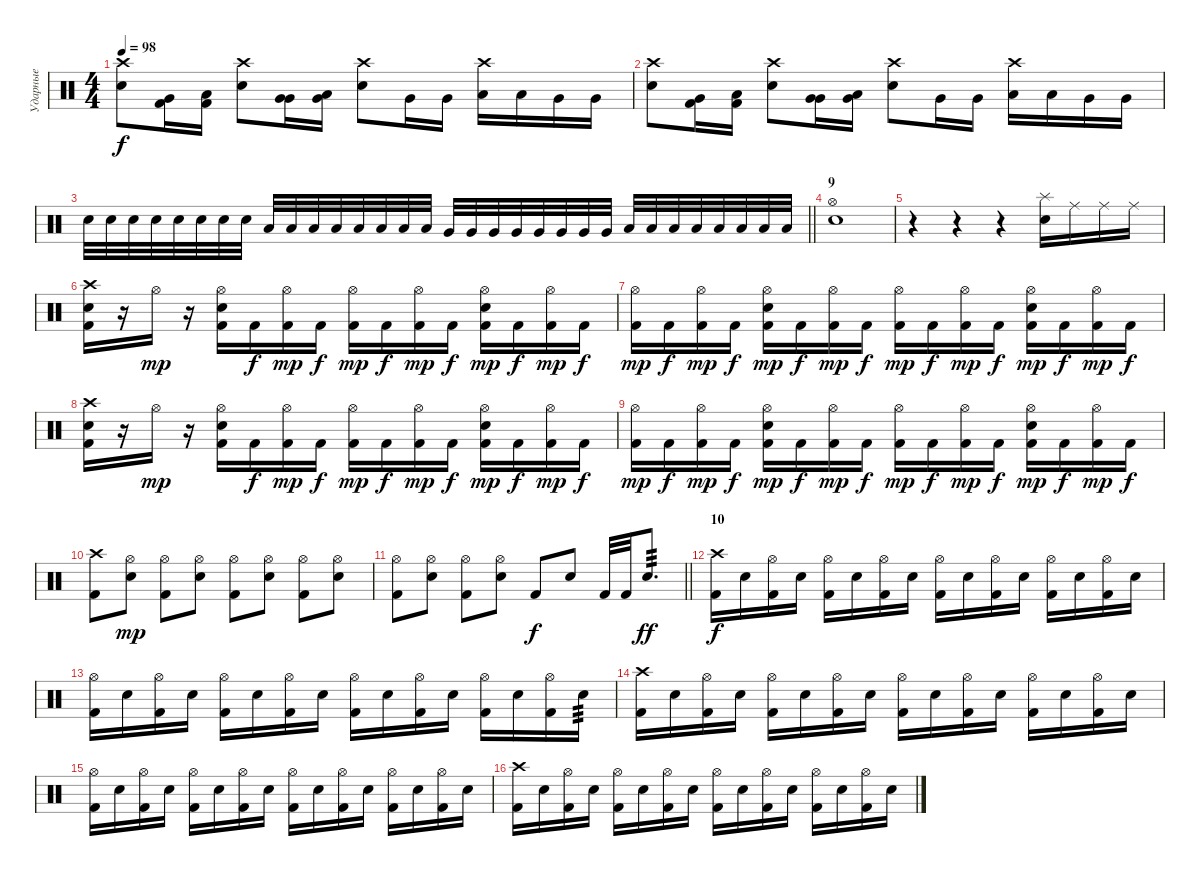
\track ("Ударные" "Ударные") {instrument percussion}
\staff {score}
\articulation defaults
\ts (4 4)
\tempo 98
\clef neutral
\ks c
("Electric Snare (hit)" "Crash high (hit)").8{dy f} ("Kick (hit) 2" "Very Low Tom (hit)").16 ("Kick (hit) 2" "Low Floor Tom (hit)").16 ("Electric Snare (hit)" "Crash high (hit)").8 ("Very Low Tom (hit)" "Very Low Tom (hit)").16 ("Very Low Tom (hit)" "Low Floor Tom (hit)").16 ("Electric Snare (hit)" "Crash high (hit)").8 "Very Low Tom (hit)".16 "Very Low Tom (hit)".16 ("Low Tom (hit)" "Crash high (hit)").16 "Low Tom (hit)".16 "Very Low Tom (hit)".16 "Very Low Tom (hit)".16 |
("Electric Snare (hit)" "Crash high (hit)").8 ("Kick (hit) 2" "Very Low Tom (hit)").16 ("Kick (hit) 2" "Low Floor Tom (hit)").16 ("Electric Snare (hit)" "Crash high (hit)").8 ("Very Low Tom (hit)" "Very Low Tom (hit)").16 ("Very Low Tom (hit)" "Low Floor Tom (hit)").16 ("Electric Snare (hit)" "Crash high (hit)").8 "Very Low Tom (hit)".16 "Very Low Tom (hit)".16 ("Low Tom (hit)" "Crash high (hit)").16 "Low Tom (hit)".16 "Very Low Tom (hit)".16 "Very Low Tom (hit)".16 |
\barLineRight lightlight "Electric Snare (hit)".32 "Electric Snare (hit)".32 "Electric Snare (hit)".32 "Electric Snare (hit)".32 "Electric Snare (hit)".32 "Electric Snare (hit)".32 "Electric Snare (hit)".32 "Electric Snare (hit)".32 "Low Tom (hit)".32 "Low Tom (hit)".32 "Low Tom (hit)".32 "Low Tom (hit)".32 "Low Tom (hit)".32 "Low Tom (hit)".32 "Low Tom (hit)".32 "Low Tom (hit)".32 "Very Low Tom (hit)".32 "Very Low Tom (hit)".32 "Very Low Tom (hit)".32 "Very Low Tom (hit)".32 "Very Low Tom (hit)".32 "Very Low Tom (hit)".32 "Very Low Tom (hit)".32 "Very Low Tom (hit)".32 "Low Floor Tom (hit)".32 "Low Floor Tom (hit)".32 "Low Floor Tom (hit)".32 "Low Floor Tom (hit)".32 "Low Floor Tom (hit)".32 "Low Floor Tom (hit)".32 "Low Floor Tom (hit)".32 "Low Floor Tom (hit)".32
|
\section ("" "9")
("Electric Snare (hit)" "Hi-Hat (open)").1 |
r.4 r.4 r.4 ("Electric Snare (hit)" "Splash (hit)").16 "Ride (middle)".16 "Ride (middle)".16 "Ride (middle)".16 |
("Kick (hit) 2" "Electric Snare (hit)" "Crash high (hit)").16 r.16 "Hi-Hat (open)".16{dy mp} r.16 ("Kick (hit) 2" "Electric Snare (hit)" "Hi-Hat (open)").16 "Kick (hit) 2".16{dy f} ("Kick (hit) 2" "Hi-Hat (open)").16{dy mp} "Kick (hit) 2".16{dy f} ("Kick (hit) 2" "Hi-Hat (open)").16{dy mp} "Kick (hit) 2".16{dy f} ("Kick (hit) 2" "Hi-Hat (open)").16{dy mp} "Kick (hit) 2".16{dy f} ("Kick (hit) 2" "Electric Snare (hit)" "Hi-Hat (open)").16{dy mp} "Kick (hit) 2".16{dy f} ("Kick (hit) 2" "Hi-Hat (open)").16{dy mp} "Kick (hit) 2".16{dy f} |
("Kick (hit) 2" "Hi-Hat (open)").16{dy mp} "Kick (hit) 2".16{dy f} ("Kick (hit) 2" "Hi-Hat (open)").16{dy mp} "Kick (hit) 2".16{dy f} ("Kick (hit) 2" "Electric Snare (hit)" "Hi-Hat (open)").16{dy mp} "Kick (hit) 2".16{dy f} ("Kick (hit) 2" "Hi-Hat (open)").16{dy mp} "Kick (hit) 2".16{dy f} ("Kick (hit) 2" "Hi-Hat (open)").16{dy mp} "Kick (hit) 2".16{dy f} ("Kick (hit) 2" "Hi-Hat (open)").16{dy mp} "Kick (hit) 2".16{dy f} ("Kick (hit) 2" "Electric Snare (hit)" "Hi-Hat (open)").16{dy mp} "Kick (hit) 2".16{dy f} ("Kick (hit) 2" "Hi-Hat (open)").16{dy mp} "Kick (hit) 2".16{dy f} |
("Kick (hit) 2" "Electric Snare (hit)" "Crash high (hit)").16 r.16 "Hi-Hat (open)".16{dy mp} r.16 ("Kick (hit) 2" "Electric Snare (hit)" "Hi-Hat (open)").16 "Kick (hit) 2".16{dy f} ("Kick (hit) 2" "Hi-Hat (open)").16{dy mp} "Kick (hit) 2".16{dy f} ("Kick (hit) 2" "Hi-Hat (open)").16{dy mp} "Kick (hit) 2".16{dy f} ("Kick (hit) 2" "Hi-Hat (open)").16{dy mp} "Kick (hit) 2".16{dy f} ("Kick (hit) 2" "Electric Snare (hit)" "Hi-Hat (open)").16{dy mp} "Kick (hit) 2".16{dy f} ("Kick (hit) 2" "Hi-Hat (open)").16{dy mp} "Kick (hit) 2".16{dy f} |
("Kick (hit) 2" "Hi-Hat (open)").16{dy mp} "Kick (hit) 2".16{dy f} ("Kick (hit) 2" "Hi-Hat (open)").16{dy mp} "Kick (hit) 2".16{dy f} ("Kick (hit) 2" "Electric Snare (hit)" "Hi-Hat (open)").16{dy mp} "Kick (hit) 2".16{dy f} ("Kick (hit) 2" "Hi-Hat (open)").16{dy mp} "Kick (hit) 2".16{dy f} ("Kick (hit) 2" "Hi-Hat (open)").16{dy mp} "Kick (hit) 2".16{dy f} ("Kick (hit) 2" "Hi-Hat (open)").16{dy mp} "Kick (hit) 2".16{dy f} ("Kick (hit) 2" "Electric Snare (hit)" "Hi-Hat (open)").16{dy mp} "Kick (hit) 2".16{dy f} ("Kick (hit) 2" "Hi-Hat (open)").16{dy mp} "Kick (hit) 2".16{dy f} |
("Kick (hit) 2" "Crash high (hit)").8 ("Electric Snare (hit)" "Hi-Hat (open)").8{dy mp} ("Kick (hit) 2" "Hi-Hat (open)").8 ("Electric Snare (hit)" "Hi-Hat (open)").8 ("Kick (hit) 2" "Hi-Hat (open)").8 ("Electric Snare (hit)" "Hi-Hat (open)").8 ("Kick (hit) 2" "Hi-Hat (open)").8 ("Electric Snare (hit)" "Hi-Hat (open)").8 |
\barLineRight lightlight
("Kick (hit) 2" "Hi-Hat (open)").8 ("Electric Snare (hit)" "Hi-Hat (open)").8 ("Kick (hit) 2" "Hi-Hat (open)").8 ("Electric Snare (hit)" "Hi-Hat (open)").8 "Kick (hit) 2".8{dy f} "Electric Snare (hit)".8 "Kick (hit) 2".32 "Kick (hit) 2".32 "Electric Snare (hit)".8{d tp 3 dy ff} |
\section ("" "10")
("Kick (hit) 2" "Crash high (hit)").16{dy f} "Electric Snare (hit)".16 ("Kick (hit) 2" "Hi-Hat (open)").16 "Electric Snare (hit)".16 ("Kick (hit) 2" "Hi-Hat (open)").16 "Electric Snare (hit)".16 ("Kick (hit) 2" "Hi-Hat (open)").16 "Electric Snare (hit)".16 ("Kick (hit) 2" "Hi-Hat (open)").16 "Electric Snare (hit)".16 ("Kick (hit) 2" "Hi-Hat (open)").16 "Electric Snare (hit)".16 ("Kick (hit) 2" "Hi-Hat (open)").16 "Electric Snare (hit)".16 ("Kick (hit) 2" "Hi-Hat (open)").16 "Electric Snare (hit)".16 |
("Kick (hit) 2" "Hi-Hat (open)").16 "Electric Snare (hit)".16 ("Kick (hit) 2" "Hi-Hat (open)").16 "Electric Snare (hit)".16 ("Kick (hit) 2" "Hi-Hat (open)").16 "Electric Snare (hit)".16 ("Kick (hit) 2" "Hi-Hat (open)").16 "Electric Snare (hit)".16 ("Kick (hit) 2" "Hi-Hat (open)").16 "Electric Snare (hit)".16 ("Kick (hit) 2" "Hi-Hat (open)").16 "Electric Snare (hit)".16 ("Kick (hit) 2" "Hi-Hat (open)").16 "Electric Snare (hit)".16 ("Kick (hit) 2" "Hi-Hat (open)").16 "Electric Snare (hit)".16{tp 3} |
("Kick (hit) 2" "Crash high (hit)").16 "Electric Snare (hit)".16 ("Kick (hit) 2" "Hi-Hat (open)").16 "Electric Snare (hit)".16 ("Kick (hit) 2" "Hi-Hat (open)").16 "Electric Snare (hit)".16 ("Kick (hit) 2" "Hi-Hat (open)").16 "Electric Snare (hit)".16 ("Kick (hit) 2" "Hi-Hat (open)").16 "Electric Snare (hit)".16 ("Kick (hit) 2" "Hi-Hat (open)").16 "Electric Snare (hit)".16 ("Kick (hit) 2" "Hi-Hat (open)").16 "Electric Snare (hit)".16 ("Kick (hit) 2" "Hi-Hat (open)").16 "Electric Snare (hit)".16 |
("Kick (hit) 2" "Hi-Hat (open)").16 "Electric Snare (hit)".16 ("Kick (hit) 2" "Hi-Hat (open)").16 "Electric Snare (hit)".16 ("Kick (hit) 2" "Hi-Hat (open)").16 "Electric Snare (hit)".16 ("Kick (hit) 2" "Hi-Hat (open)").16 "Electric Snare (hit)".16 ("Kick (hit) 2" "Hi-Hat (open)").16 "Electric Snare (hit)".16 ("Kick (hit) 2" "Hi-Hat (open)").16 "Electric Snare (hit)".16 ("Kick (hit) 2" "Hi-Hat (open)").16 "Electric Snare (hit)".16 ("Kick (hit) 2" "Hi-Hat (open)").16 "Electric Snare (hit)".16 |
("Kick (hit) 2" "Crash high (hit)").16 "Electric Snare (hit)".16 ("Kick (hit) 2" "Hi-Hat (open)").16 "Electric Snare (hit)".16 ("Kick (hit) 2" "Hi-Hat (open)").16 "Electric Snare (hit)".16 ("Kick (hit) 2" "Hi-Hat (open)").16 "Electric Snare (hit)".16 ("Kick (hit) 2" "Hi-Hat (open)").16 "Electric Snare (hit)".16 ("Kick (hit) 2" "Hi-Hat (open)").16 "Electric Snare (hit)".16 ("Kick (hit) 2" "Hi-Hat (open)").16 "Electric Snare (hit)".16 ("Kick (hit) 2" "Hi-Hat (open)").16 "Electric Snare (hit)".16
